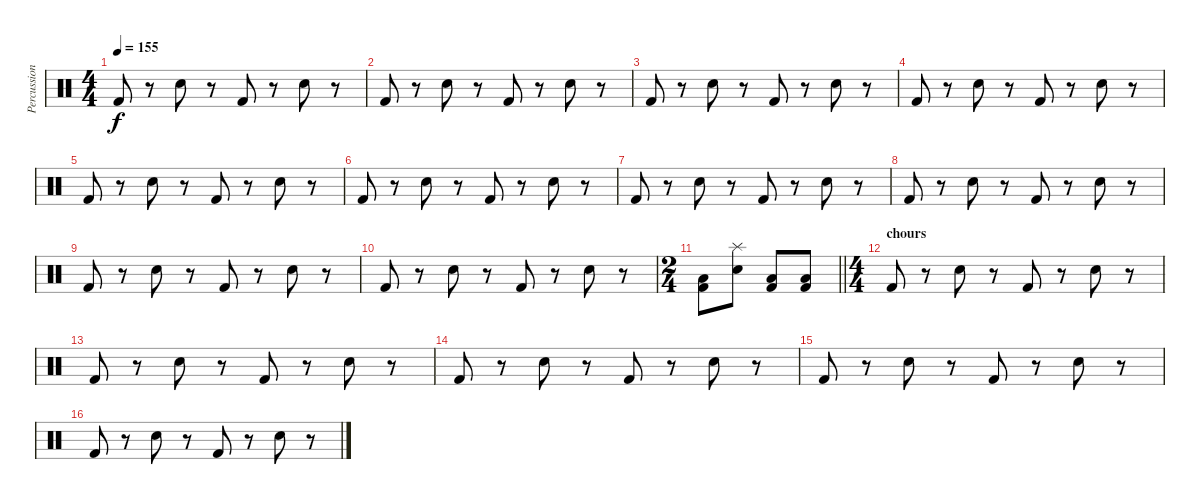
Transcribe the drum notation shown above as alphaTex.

\track ("Percussions" "Percussion") {instrument percussion}
\staff {score}
\articulation defaults
\ts (4 4)
\tempo 155
\clef neutral
\ks c "Kick (hit) 2".8{dy f}
r.8 "Snare (hit) 2".8 r.8 "Kick (hit) 2".8 r.8 "Snare (hit) 2".8 r.8 |
"Kick (hit) 2".8 r.8 "Snare (hit) 2".8 r.8 "Kick (hit) 2".8 r.8 "Snare (hit) 2".8 r.8 |
"Kick (hit) 2".8 r.8 "Snare (hit) 2".8 r.8 "Kick (hit) 2".8 r.8 "Snare (hit) 2".8 r.8 |
"Kick (hit) 2".8 r.8 "Snare (hit) 2".8 r.8 "Kick (hit) 2".8 r.8 "Snare (hit) 2".8 r.8 |
"Kick (hit) 2".8 r.8 "Snare (hit) 2".8 r.8 "Kick (hit) 2".8 r.8 "Snare (hit) 2".8 r.8 |
"Kick (hit) 2".8 r.8 "Snare (hit) 2".8 r.8 "Kick (hit) 2".8 r.8 "Snare (hit) 2".8 r.8 |
"Kick (hit) 2".8 r.8 "Snare (hit) 2".8 r.8 "Kick (hit) 2".8 r.8 "Snare (hit) 2".8 r.8 |
"Kick (hit) 2".8 r.8 "Snare (hit) 2".8 r.8 "Kick (hit) 2".8 r.8 "Snare (hit) 2".8 r.8 |
"Kick (hit) 2".8 r.8 "Snare (hit) 2".8 r.8 "Kick (hit) 2".8 r.8 "Snare (hit) 2".8 r.8 |
"Kick (hit) 2".8 r.8 "Snare (hit) 2".8 r.8 "Kick (hit) 2".8 r.8 "Snare (hit) 2".8 r.8 |
\ts (2 4)
\barLineRight lightlight
("Low Floor Tom (hit)" "Kick (hit) 2").8 ("Splash (hit)" "Snare (hit) 2").8 ("Low Floor Tom (hit)" "Kick (hit) 2").8 ("Low Floor Tom (hit)" "Kick (hit) 2").8 |
\ts (4 4)
\section ("" "chours")
"Kick (hit) 2".8 r.8 "Snare (hit) 2".8 r.8 "Kick (hit) 2".8 r.8 "Snare (hit) 2".8 r.8 |
"Kick (hit) 2".8 r.8 "Snare (hit) 2".8 r.8 "Kick (hit) 2".8 r.8 "Snare (hit) 2".8 r.8 |
"Kick (hit) 2".8 r.8 "Snare (hit) 2".8 r.8 "Kick (hit) 2".8 r.8 "Snare (hit) 2".8 r.8 |
"Kick (hit) 2".8 r.8 "Snare (hit) 2".8 r.8 "Kick (hit) 2".8 r.8 "Snare (hit) 2".8 r.8 |
"Kick (hit) 2".8 r.8 "Snare (hit) 2".8 r.8 "Kick (hit) 2".8 r.8 "Snare (hit) 2".8 r.8
